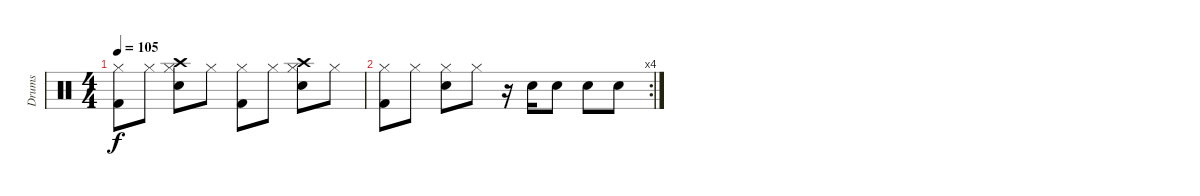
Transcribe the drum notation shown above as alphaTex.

\track ("Drums" "Drums") {instrument percussion}
\staff {score}
\articulation defaults
\ts (4 4)
\tempo 105
\clef neutral
\ks c
("Hi-Hat (closed)" "Kick (hit) 2").8{dy f} "Hi-Hat (closed)".8 ("Hi-Hat (closed)" "Crash high (hit)" "Snare (hit) 2").8 "Hi-Hat (closed)".8 ("Hi-Hat (closed)" "Kick (hit) 2").8 "Hi-Hat (closed)".8 ("Hi-Hat (closed)" "Crash high (hit)" "Snare (hit) 2").8 "Hi-Hat (closed)".8 |
\rc 4
("Hi-Hat (closed)" "Kick (hit) 2").8 "Hi-Hat (closed)".8 ("Hi-Hat (closed)" "Snare (hit) 2").8 "Hi-Hat (closed)".8 r.16 "Snare (hit) 2".16 "Snare (hit) 2".8 "Snare (hit) 2".8 "Snare (hit) 2".8
